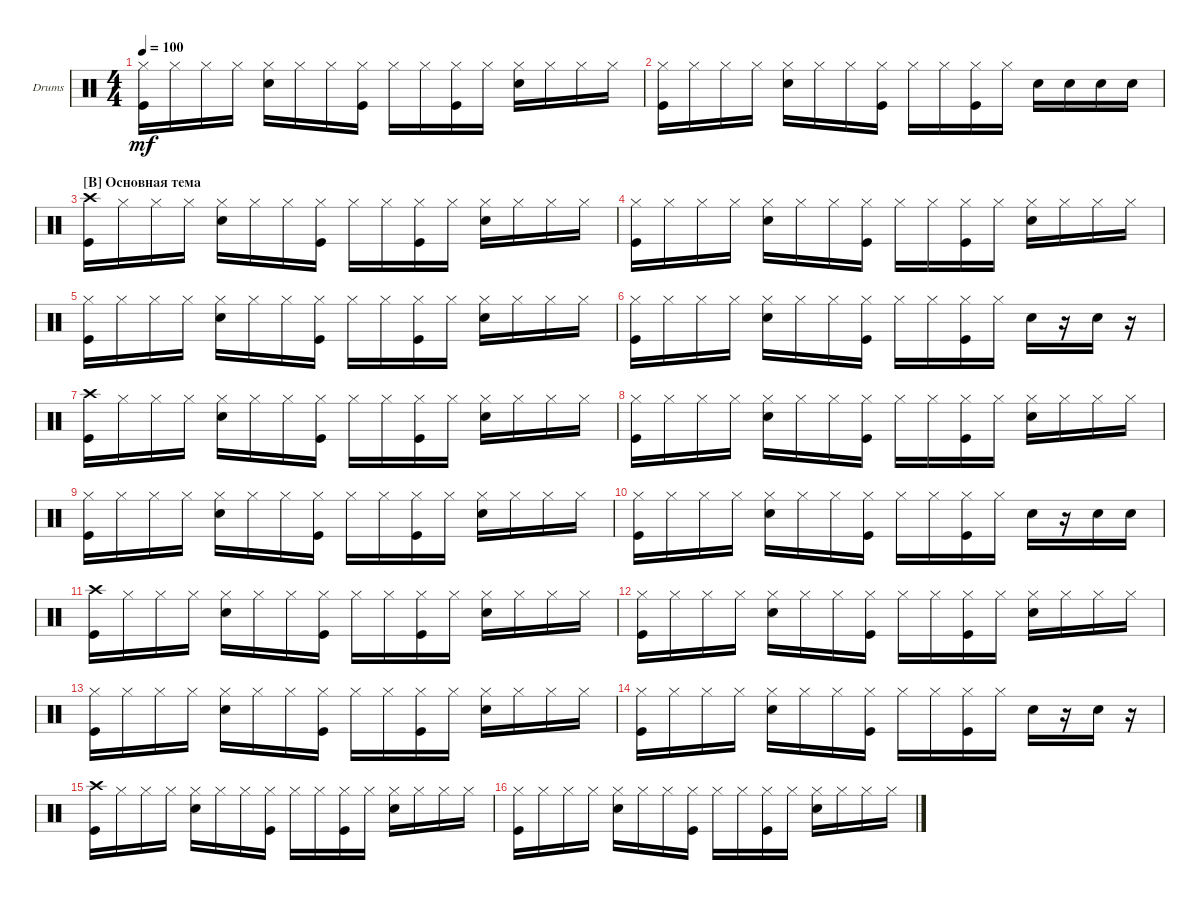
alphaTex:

\bracketExtendMode groupsimilarinstruments
\firstSystemTrackNameOrientation horizontal
\otherSystemsTrackNameOrientation horizontal
\track ("Drumkit" "Drums") {instrument percussion}
\staff {score}
\articulation defaults
\ts (4 4)
\tempo 100
\clef neutral
\ks c
("Kick (hit)" "Hi-Hat (closed)").16{dy mf} "Hi-Hat (closed)".16 "Hi-Hat (closed)".16 "Hi-Hat (closed)".16 ("Hi-Hat (closed)" "Snare (hit) 2").16 "Hi-Hat (closed)".16 "Hi-Hat (closed)".16 ("Hi-Hat (closed)" "Kick (hit)").16 "Hi-Hat (closed)".16 "Hi-Hat (closed)".16 ("Hi-Hat (closed)" "Kick (hit)").16 "Hi-Hat (closed)".16 ("Hi-Hat (closed)" "Snare (hit) 2").16 "Hi-Hat (closed)".16 "Hi-Hat (closed)".16 "Hi-Hat (closed)".16 |
("Kick (hit)" "Hi-Hat (closed)").16 "Hi-Hat (closed)".16 "Hi-Hat (closed)".16 "Hi-Hat (closed)".16 ("Hi-Hat (closed)" "Snare (hit) 2").16 "Hi-Hat (closed)".16 "Hi-Hat (closed)".16 ("Hi-Hat (closed)" "Kick (hit)").16 "Hi-Hat (closed)".16 "Hi-Hat (closed)".16 ("Hi-Hat (closed)" "Kick (hit)").16 "Hi-Hat (closed)".16 "Snare (hit) 2".16 "Snare (hit) 2".16 "Snare (hit) 2".16 "Snare (hit) 2".16 |
\section ("B" "Основная тема")
("Kick (hit)" "Crash high (hit)").16 "Hi-Hat (closed)".16 "Hi-Hat (closed)".16 "Hi-Hat (closed)".16 ("Hi-Hat (closed)" "Snare (hit) 2").16 "Hi-Hat (closed)".16 "Hi-Hat (closed)".16 ("Hi-Hat (closed)" "Kick (hit)").16 "Hi-Hat (closed)".16 "Hi-Hat (closed)".16 ("Hi-Hat (closed)" "Kick (hit)").16 "Hi-Hat (closed)".16 ("Hi-Hat (closed)" "Snare (hit) 2").16 "Hi-Hat (closed)".16 "Hi-Hat (closed)".16 "Hi-Hat (closed)".16 |
("Kick (hit)" "Hi-Hat (closed)").16 "Hi-Hat (closed)".16 "Hi-Hat (closed)".16 "Hi-Hat (closed)".16 ("Hi-Hat (closed)" "Snare (hit) 2").16 "Hi-Hat (closed)".16 "Hi-Hat (closed)".16 ("Hi-Hat (closed)" "Kick (hit)").16 "Hi-Hat (closed)".16 "Hi-Hat (closed)".16 ("Hi-Hat (closed)" "Kick (hit)").16 "Hi-Hat (closed)".16 ("Hi-Hat (closed)" "Snare (hit) 2").16 "Hi-Hat (closed)".16 "Hi-Hat (closed)".16 "Hi-Hat (closed)".16 |
("Kick (hit)" "Hi-Hat (closed)").16 "Hi-Hat (closed)".16 "Hi-Hat (closed)".16 "Hi-Hat (closed)".16 ("Hi-Hat (closed)" "Snare (hit) 2").16 "Hi-Hat (closed)".16 "Hi-Hat (closed)".16 ("Hi-Hat (closed)" "Kick (hit)").16 "Hi-Hat (closed)".16 "Hi-Hat (closed)".16 ("Hi-Hat (closed)" "Kick (hit)").16 "Hi-Hat (closed)".16 ("Hi-Hat (closed)" "Snare (hit) 2").16 "Hi-Hat (closed)".16 "Hi-Hat (closed)".16 "Hi-Hat (closed)".16 |
("Kick (hit)" "Hi-Hat (closed)").16 "Hi-Hat (closed)".16 "Hi-Hat (closed)".16 "Hi-Hat (closed)".16 ("Hi-Hat (closed)" "Snare (hit) 2").16 "Hi-Hat (closed)".16 "Hi-Hat (closed)".16 ("Hi-Hat (closed)" "Kick (hit)").16 "Hi-Hat (closed)".16 "Hi-Hat (closed)".16 ("Hi-Hat (closed)" "Kick (hit)").16 "Hi-Hat (closed)".16 "Snare (hit) 2".16 r.16 "Snare (hit) 2".16 r.16 |
("Kick (hit)" "Crash high (hit)").16 "Hi-Hat (closed)".16 "Hi-Hat (closed)".16 "Hi-Hat (closed)".16 ("Hi-Hat (closed)" "Snare (hit) 2").16 "Hi-Hat (closed)".16 "Hi-Hat (closed)".16 ("Hi-Hat (closed)" "Kick (hit)").16 "Hi-Hat (closed)".16 "Hi-Hat (closed)".16 ("Hi-Hat (closed)" "Kick (hit)").16 "Hi-Hat (closed)".16 ("Hi-Hat (closed)" "Snare (hit) 2").16 "Hi-Hat (closed)".16 "Hi-Hat (closed)".16 "Hi-Hat (closed)".16 |
("Kick (hit)" "Hi-Hat (closed)").16 "Hi-Hat (closed)".16 "Hi-Hat (closed)".16 "Hi-Hat (closed)".16 ("Hi-Hat (closed)" "Snare (hit) 2").16 "Hi-Hat (closed)".16 "Hi-Hat (closed)".16 ("Hi-Hat (closed)" "Kick (hit)").16 "Hi-Hat (closed)".16 "Hi-Hat (closed)".16 ("Hi-Hat (closed)" "Kick (hit)").16 "Hi-Hat (closed)".16 ("Hi-Hat (closed)" "Snare (hit) 2").16 "Hi-Hat (closed)".16 "Hi-Hat (closed)".16 "Hi-Hat (closed)".16 |
("Kick (hit)" "Hi-Hat (closed)").16 "Hi-Hat (closed)".16 "Hi-Hat (closed)".16 "Hi-Hat (closed)".16 ("Hi-Hat (closed)" "Snare (hit) 2").16 "Hi-Hat (closed)".16 "Hi-Hat (closed)".16 ("Hi-Hat (closed)" "Kick (hit)").16 "Hi-Hat (closed)".16 "Hi-Hat (closed)".16 ("Hi-Hat (closed)" "Kick (hit)").16 "Hi-Hat (closed)".16 ("Hi-Hat (closed)" "Snare (hit) 2").16 "Hi-Hat (closed)".16 "Hi-Hat (closed)".16 "Hi-Hat (closed)".16 |
("Kick (hit)" "Hi-Hat (closed)").16 "Hi-Hat (closed)".16 "Hi-Hat (closed)".16 "Hi-Hat (closed)".16 ("Hi-Hat (closed)" "Snare (hit) 2").16 "Hi-Hat (closed)".16 "Hi-Hat (closed)".16 ("Hi-Hat (closed)" "Kick (hit)").16 "Hi-Hat (closed)".16 "Hi-Hat (closed)".16 ("Hi-Hat (closed)" "Kick (hit)").16 "Hi-Hat (closed)".16 "Snare (hit) 2".16 r.16 "Snare (hit) 2".16 "Snare (hit) 2".16 |
("Kick (hit)" "Crash high (hit)").16 "Hi-Hat (closed)".16 "Hi-Hat (closed)".16 "Hi-Hat (closed)".16 ("Hi-Hat (closed)" "Snare (hit) 2").16 "Hi-Hat (closed)".16 "Hi-Hat (closed)".16 ("Hi-Hat (closed)" "Kick (hit)").16 "Hi-Hat (closed)".16 "Hi-Hat (closed)".16 ("Hi-Hat (closed)" "Kick (hit)").16 "Hi-Hat (closed)".16 ("Hi-Hat (closed)" "Snare (hit) 2").16 "Hi-Hat (closed)".16 "Hi-Hat (closed)".16 "Hi-Hat (closed)".16 |
("Kick (hit)" "Hi-Hat (closed)").16 "Hi-Hat (closed)".16 "Hi-Hat (closed)".16 "Hi-Hat (closed)".16 ("Hi-Hat (closed)" "Snare (hit) 2").16 "Hi-Hat (closed)".16 "Hi-Hat (closed)".16 ("Hi-Hat (closed)" "Kick (hit)").16 "Hi-Hat (closed)".16 "Hi-Hat (closed)".16 ("Hi-Hat (closed)" "Kick (hit)").16 "Hi-Hat (closed)".16 ("Hi-Hat (closed)" "Snare (hit) 2").16 "Hi-Hat (closed)".16 "Hi-Hat (closed)".16 "Hi-Hat (closed)".16 |
("Kick (hit)" "Hi-Hat (closed)").16 "Hi-Hat (closed)".16 "Hi-Hat (closed)".16 "Hi-Hat (closed)".16 ("Hi-Hat (closed)" "Snare (hit) 2").16 "Hi-Hat (closed)".16 "Hi-Hat (closed)".16 ("Hi-Hat (closed)" "Kick (hit)").16 "Hi-Hat (closed)".16 "Hi-Hat (closed)".16 ("Hi-Hat (closed)" "Kick (hit)").16 "Hi-Hat (closed)".16 ("Hi-Hat (closed)" "Snare (hit) 2").16 "Hi-Hat (closed)".16 "Hi-Hat (closed)".16 "Hi-Hat (closed)".16 |
("Kick (hit)" "Hi-Hat (closed)").16 "Hi-Hat (closed)".16 "Hi-Hat (closed)".16 "Hi-Hat (closed)".16 ("Hi-Hat (closed)" "Snare (hit) 2").16 "Hi-Hat (closed)".16 "Hi-Hat (closed)".16 ("Hi-Hat (closed)" "Kick (hit)").16 "Hi-Hat (closed)".16 "Hi-Hat (closed)".16 ("Hi-Hat (closed)" "Kick (hit)").16 "Hi-Hat (closed)".16 "Snare (hit) 2".16 r.16 "Snare (hit) 2".16 r.16 |
("Kick (hit)" "Crash high (hit)").16 "Hi-Hat (closed)".16 "Hi-Hat (closed)".16 "Hi-Hat (closed)".16 ("Hi-Hat (closed)" "Snare (hit) 2").16 "Hi-Hat (closed)".16 "Hi-Hat (closed)".16 ("Hi-Hat (closed)" "Kick (hit)").16 "Hi-Hat (closed)".16 "Hi-Hat (closed)".16 ("Hi-Hat (closed)" "Kick (hit)").16 "Hi-Hat (closed)".16 ("Hi-Hat (closed)" "Snare (hit) 2").16 "Hi-Hat (closed)".16 "Hi-Hat (closed)".16 "Hi-Hat (closed)".16 |
("Kick (hit)" "Hi-Hat (closed)").16 "Hi-Hat (closed)".16 "Hi-Hat (closed)".16 "Hi-Hat (closed)".16 ("Hi-Hat (closed)" "Snare (hit) 2").16 "Hi-Hat (closed)".16 "Hi-Hat (closed)".16 ("Hi-Hat (closed)" "Kick (hit)").16 "Hi-Hat (closed)".16 "Hi-Hat (closed)".16 ("Hi-Hat (closed)" "Kick (hit)").16 "Hi-Hat (closed)".16 ("Hi-Hat (closed)" "Snare (hit) 2").16 "Hi-Hat (closed)".16 "Hi-Hat (closed)".16 "Hi-Hat (closed)".16
